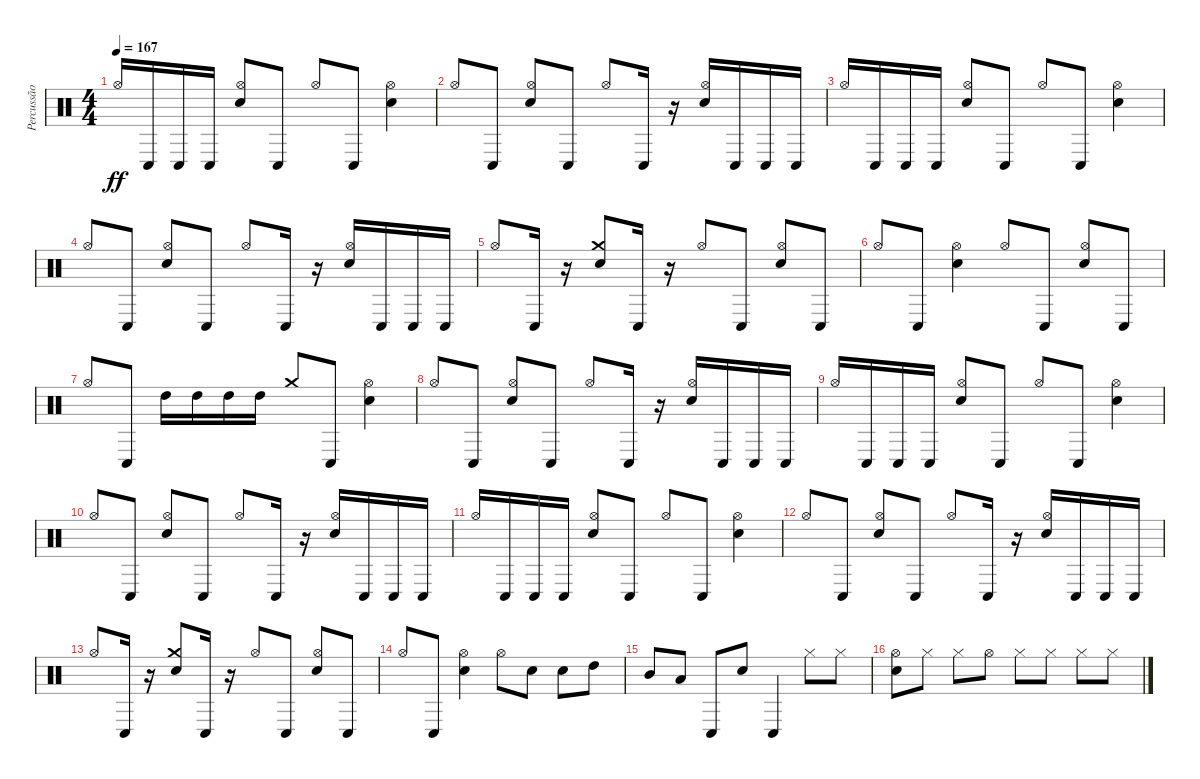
\track ("Percussão" "Percussão") {instrument percussion}
\staff {score}
\articulation defaults
\ts (4 4)
\tempo 167
\clef neutral
\ks c "Hi-Hat (open)".16{dy ff} "Conga low (hit)".16 "Conga low (hit)".16 "Conga low (hit)".16
("Electric Snare (hit)" "Hi-Hat (open)").8 "Conga low (hit)".8 "Hi-Hat (open)".8 "Conga low (hit)".8 ("Electric Snare (hit)" "Hi-Hat (open)").4 |
"Hi-Hat (open)".8 "Conga low (hit)".8 ("Electric Snare (hit)" "Hi-Hat (open)").8 "Conga low (hit)".8 "Hi-Hat (open)".8 "Conga low (hit)".16 r.16 ("Electric Snare (hit)" "Hi-Hat (open)").16 "Conga low (hit)".16 "Conga low (hit)".16 "Conga low (hit)".16 |
"Hi-Hat (open)".16 "Conga low (hit)".16 "Conga low (hit)".16 "Conga low (hit)".16 ("Electric Snare (hit)" "Hi-Hat (open)").8 "Conga low (hit)".8 "Hi-Hat (open)".8 "Conga low (hit)".8 ("Electric Snare (hit)" "Hi-Hat (open)").4 |
"Hi-Hat (open)".8 "Conga low (hit)".8 ("Electric Snare (hit)" "Hi-Hat (open)").8 "Conga low (hit)".8 "Hi-Hat (open)".8 "Conga low (hit)".16 r.16 ("Electric Snare (hit)" "Hi-Hat (open)").16 "Conga low (hit)".16 "Conga low (hit)".16 "Conga low (hit)".16 |
"Hi-Hat (open)".8 "Conga low (hit)".16 r.16 ("Electric Snare (hit)" "Crash medium (hit)").8 "Conga low (hit)".16 r.16 "Hi-Hat (open)".8 "Conga low (hit)".8 ("Electric Snare (hit)" "Hi-Hat (open)").8 "Conga low (hit)".8 |
"Hi-Hat (open)".8 "Conga low (hit)".8 ("Electric Snare (hit)" "Hi-Hat (open)").4 "Hi-Hat (open)".8 "Conga low (hit)".8 ("Electric Snare (hit)" "Hi-Hat (open)").8 "Conga low (hit)".8 |
"Hi-Hat (open)".8 "Conga low (hit)".8 "High Tom (hit)".16 "High Tom (hit)".16 "High Tom (hit)".16 "High Tom (hit)".16 "Crash medium (hit)".8 "Conga low (hit)".8 ("Electric Snare (hit)" "Hi-Hat (open)").4 |
"Hi-Hat (open)".8 "Conga low (hit)".8 ("Electric Snare (hit)" "Hi-Hat (open)").8 "Conga low (hit)".8 "Hi-Hat (open)".8 "Conga low (hit)".16 r.16 ("Electric Snare (hit)" "Hi-Hat (open)").16 "Conga low (hit)".16 "Conga low (hit)".16 "Conga low (hit)".16 |
"Hi-Hat (open)".16 "Conga low (hit)".16 "Conga low (hit)".16 "Conga low (hit)".16 ("Electric Snare (hit)" "Hi-Hat (open)").8 "Conga low (hit)".8 "Hi-Hat (open)".8 "Conga low (hit)".8 ("Electric Snare (hit)" "Hi-Hat (open)").4 |
"Hi-Hat (open)".8 "Conga low (hit)".8 ("Electric Snare (hit)" "Hi-Hat (open)").8 "Conga low (hit)".8 "Hi-Hat (open)".8 "Conga low (hit)".16 r.16 ("Electric Snare (hit)" "Hi-Hat (open)").16 "Conga low (hit)".16 "Conga low (hit)".16 "Conga low (hit)".16 |
"Hi-Hat (open)".16 "Conga low (hit)".16 "Conga low (hit)".16 "Conga low (hit)".16 ("Electric Snare (hit)" "Hi-Hat (open)").8 "Conga low (hit)".8 "Hi-Hat (open)".8 "Conga low (hit)".8 ("Electric Snare (hit)" "Hi-Hat (open)").4 |
"Hi-Hat (open)".8 "Conga low (hit)".8 ("Electric Snare (hit)" "Hi-Hat (open)").8 "Conga low (hit)".8 "Hi-Hat (open)".8 "Conga low (hit)".16 r.16 ("Electric Snare (hit)" "Hi-Hat (open)").16 "Conga low (hit)".16 "Conga low (hit)".16 "Conga low (hit)".16 |
"Hi-Hat (open)".8 "Conga low (hit)".16 r.16 ("Electric Snare (hit)" "Crash medium (hit)").8 "Conga low (hit)".16 r.16 "Hi-Hat (open)".8 "Conga low (hit)".8 ("Electric Snare (hit)" "Hi-Hat (open)").8 "Conga low (hit)".8 |
"Hi-Hat (open)".8 "Conga low (hit)".8 ("Electric Snare (hit)" "Hi-Hat (open)").4 "Hi-Hat (open)".8 "Electric Snare (hit)".8 "Electric Snare (hit)".8 "High Tom (hit)".8 |
"Mid Tom (hit)".8 "Low Tom (hit)".8 "Conga low (hit)".8 "Electric Snare (hit)".8 "Conga low (hit)".4 "Hi-Hat (closed)".8 "Hi-Hat (closed)".8 |
("Electric Snare (hit)" "Hi-Hat (open)").8 "Hi-Hat (closed)".8 "Hi-Hat (closed)".8 "Hi-Hat (open)".8 "Hi-Hat (closed)".8 "Hi-Hat (closed)".8 "Hi-Hat (closed)".8 "Hi-Hat (closed)".8
